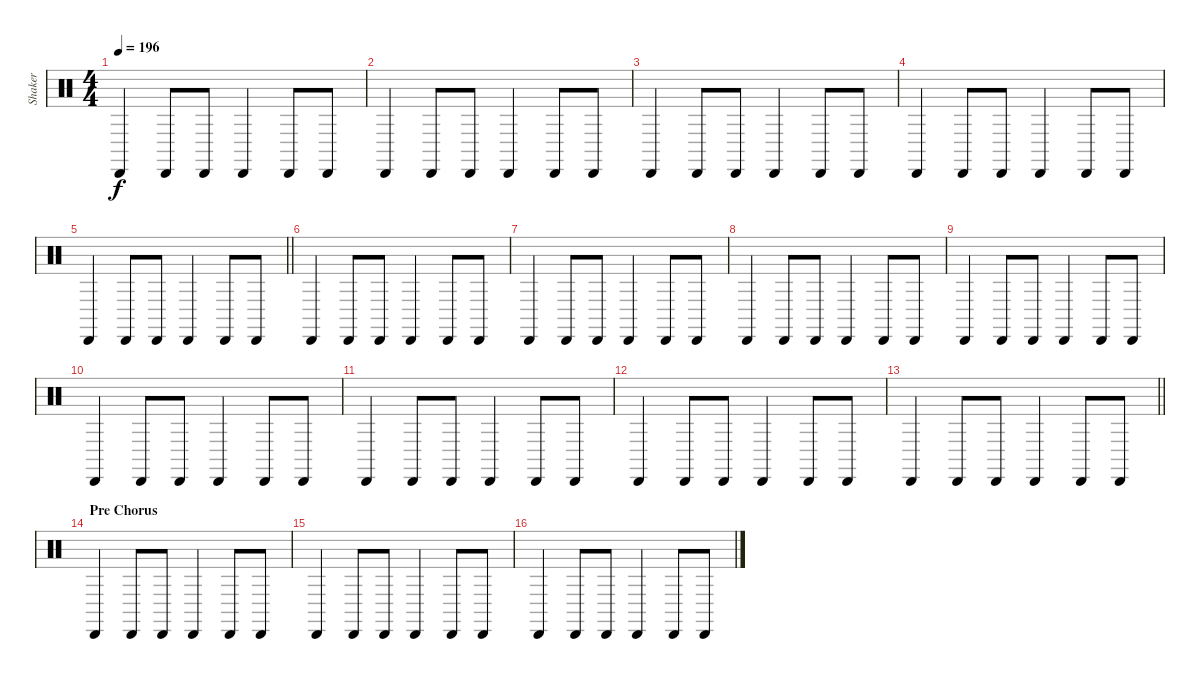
\track ("Shaker" "Shaker") {instrument percussion bank 126}
\staff {score}
\articulation defaults
\ts (4 4)
\tempo 196
\clef neutral
\ks c "Cabasa (hit)".4{dy f} "Cabasa (hit)".8 "Cabasa (hit)".8 "Cabasa (hit)".4 "Cabasa (hit)".8 "Cabasa (hit)".8
|
"Cabasa (hit)".4 "Cabasa (hit)".8 "Cabasa (hit)".8 "Cabasa (hit)".4 "Cabasa (hit)".8 "Cabasa (hit)".8 |
"Cabasa (hit)".4 "Cabasa (hit)".8 "Cabasa (hit)".8 "Cabasa (hit)".4 "Cabasa (hit)".8 "Cabasa (hit)".8 |
"Cabasa (hit)".4 "Cabasa (hit)".8 "Cabasa (hit)".8 "Cabasa (hit)".4 "Cabasa (hit)".8 "Cabasa (hit)".8 |
\barLineRight lightlight "Cabasa (hit)".4 "Cabasa (hit)".8 "Cabasa (hit)".8 "Cabasa (hit)".4 "Cabasa (hit)".8 "Cabasa (hit)".8
|
\section ("" "")
"Cabasa (hit)".4 "Cabasa (hit)".8 "Cabasa (hit)".8 "Cabasa (hit)".4 "Cabasa (hit)".8 "Cabasa (hit)".8 |
"Cabasa (hit)".4 "Cabasa (hit)".8 "Cabasa (hit)".8 "Cabasa (hit)".4 "Cabasa (hit)".8 "Cabasa (hit)".8 |
"Cabasa (hit)".4 "Cabasa (hit)".8 "Cabasa (hit)".8 "Cabasa (hit)".4 "Cabasa (hit)".8 "Cabasa (hit)".8 |
"Cabasa (hit)".4 "Cabasa (hit)".8 "Cabasa (hit)".8 "Cabasa (hit)".4 "Cabasa (hit)".8 "Cabasa (hit)".8 |
"Cabasa (hit)".4 "Cabasa (hit)".8 "Cabasa (hit)".8 "Cabasa (hit)".4 "Cabasa (hit)".8 "Cabasa (hit)".8 |
"Cabasa (hit)".4 "Cabasa (hit)".8 "Cabasa (hit)".8 "Cabasa (hit)".4 "Cabasa (hit)".8 "Cabasa (hit)".8 |
"Cabasa (hit)".4 "Cabasa (hit)".8 "Cabasa (hit)".8 "Cabasa (hit)".4 "Cabasa (hit)".8 "Cabasa (hit)".8 |
\barLineRight lightlight "Cabasa (hit)".4 "Cabasa (hit)".8 "Cabasa (hit)".8 "Cabasa (hit)".4 "Cabasa (hit)".8 "Cabasa (hit)".8
|
\section ("" "Pre Chorus")
"Cabasa (hit)".4 "Cabasa (hit)".8 "Cabasa (hit)".8 "Cabasa (hit)".4 "Cabasa (hit)".8 "Cabasa (hit)".8 |
"Cabasa (hit)".4 "Cabasa (hit)".8 "Cabasa (hit)".8 "Cabasa (hit)".4 "Cabasa (hit)".8 "Cabasa (hit)".8 |
"Cabasa (hit)".4 "Cabasa (hit)".8 "Cabasa (hit)".8 "Cabasa (hit)".4 "Cabasa (hit)".8 "Cabasa (hit)".8
